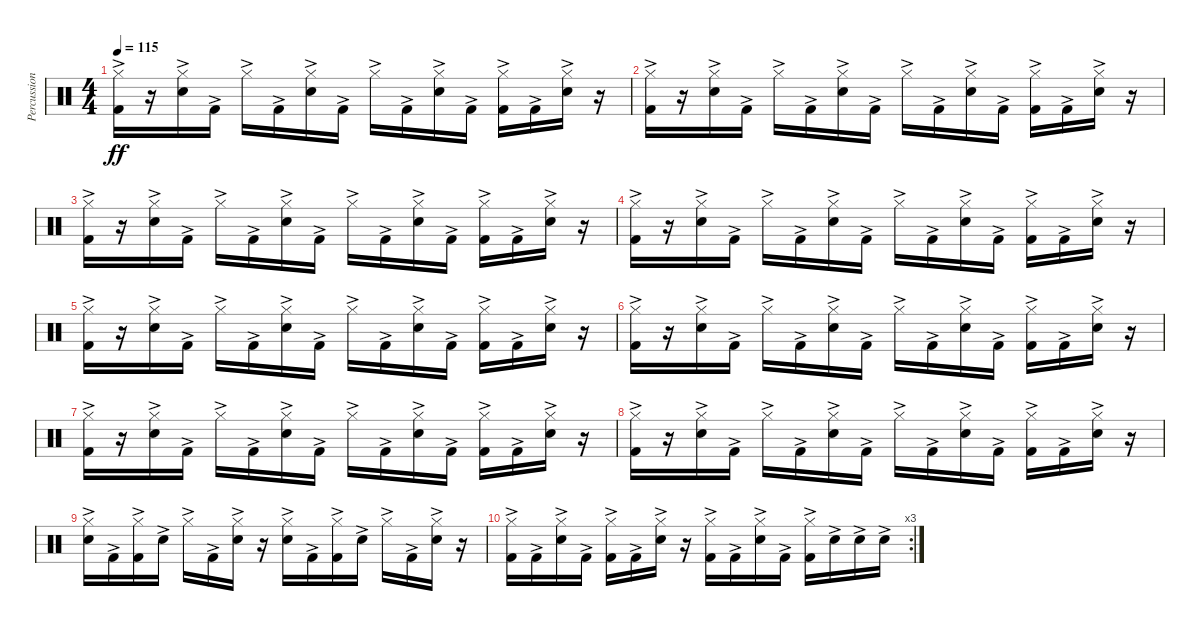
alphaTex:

\track ("Percussion" "Percussion") {instrument percussion bank 110}
\staff {score}
\articulation defaults
\ts (4 4)
\tempo 115
\clef neutral
\ks c
("Hi-Hat (closed)"{ac} "Kick (hit) 2"{ac}).16{dy ff} r.16 ("Hi-Hat (closed)"{ac} "Snare (hit) 2"{ac}).16 "Kick (hit) 2"{ac}.16 "Hi-Hat (closed)"{ac}.16 "Kick (hit) 2"{ac}.16 ("Hi-Hat (closed)"{ac} "Snare (hit) 2"{ac}).16 "Kick (hit) 2"{ac}.16 "Hi-Hat (closed)"{ac}.16 "Kick (hit) 2"{ac}.16 ("Hi-Hat (closed)"{ac} "Snare (hit) 2"{ac}).16 "Kick (hit) 2"{ac}.16 ("Hi-Hat (closed)"{ac} "Kick (hit) 2"{ac}).16 "Kick (hit) 2"{ac}.16 ("Hi-Hat (closed)"{ac} "Snare (hit) 2"{ac}).16 r.16 |
("Hi-Hat (closed)"{ac} "Kick (hit) 2"{ac}).16 r.16 ("Hi-Hat (closed)"{ac} "Snare (hit) 2"{ac}).16 "Kick (hit) 2"{ac}.16 "Hi-Hat (closed)"{ac}.16 "Kick (hit) 2"{ac}.16 ("Hi-Hat (closed)"{ac} "Snare (hit) 2"{ac}).16 "Kick (hit) 2"{ac}.16 "Hi-Hat (closed)"{ac}.16 "Kick (hit) 2"{ac}.16 ("Hi-Hat (closed)"{ac} "Snare (hit) 2"{ac}).16 "Kick (hit) 2"{ac}.16 ("Hi-Hat (closed)"{ac} "Kick (hit) 2"{ac}).16 "Kick (hit) 2"{ac}.16 ("Hi-Hat (closed)"{ac} "Snare (hit) 2"{ac}).16 r.16 |
("Hi-Hat (closed)"{ac} "Kick (hit) 2"{ac}).16 r.16 ("Hi-Hat (closed)"{ac} "Snare (hit) 2"{ac}).16 "Kick (hit) 2"{ac}.16 "Hi-Hat (closed)"{ac}.16 "Kick (hit) 2"{ac}.16 ("Hi-Hat (closed)"{ac} "Snare (hit) 2"{ac}).16 "Kick (hit) 2"{ac}.16 "Hi-Hat (closed)"{ac}.16 "Kick (hit) 2"{ac}.16 ("Hi-Hat (closed)"{ac} "Snare (hit) 2"{ac}).16 "Kick (hit) 2"{ac}.16 ("Hi-Hat (closed)"{ac} "Kick (hit) 2"{ac}).16 "Kick (hit) 2"{ac}.16 ("Hi-Hat (closed)"{ac} "Snare (hit) 2"{ac}).16 r.16 |
("Hi-Hat (closed)"{ac} "Kick (hit) 2"{ac}).16 r.16 ("Hi-Hat (closed)"{ac} "Snare (hit) 2"{ac}).16 "Kick (hit) 2"{ac}.16 "Hi-Hat (closed)"{ac}.16 "Kick (hit) 2"{ac}.16 ("Hi-Hat (closed)"{ac} "Snare (hit) 2"{ac}).16 "Kick (hit) 2"{ac}.16 "Hi-Hat (closed)"{ac}.16 "Kick (hit) 2"{ac}.16 ("Hi-Hat (closed)"{ac} "Snare (hit) 2"{ac}).16 "Kick (hit) 2"{ac}.16 ("Hi-Hat (closed)"{ac} "Kick (hit) 2"{ac}).16 "Kick (hit) 2"{ac}.16 ("Hi-Hat (closed)"{ac} "Snare (hit) 2"{ac}).16 r.16 |
("Hi-Hat (closed)"{ac} "Kick (hit) 2"{ac}).16 r.16 ("Hi-Hat (closed)"{ac} "Snare (hit) 2"{ac}).16 "Kick (hit) 2"{ac}.16 "Hi-Hat (closed)"{ac}.16 "Kick (hit) 2"{ac}.16 ("Hi-Hat (closed)"{ac} "Snare (hit) 2"{ac}).16 "Kick (hit) 2"{ac}.16 "Hi-Hat (closed)"{ac}.16 "Kick (hit) 2"{ac}.16 ("Hi-Hat (closed)"{ac} "Snare (hit) 2"{ac}).16 "Kick (hit) 2"{ac}.16 ("Hi-Hat (closed)"{ac} "Kick (hit) 2"{ac}).16 "Kick (hit) 2"{ac}.16 ("Hi-Hat (closed)"{ac} "Snare (hit) 2"{ac}).16 r.16 |
("Hi-Hat (closed)"{ac} "Kick (hit) 2"{ac}).16 r.16 ("Hi-Hat (closed)"{ac} "Snare (hit) 2"{ac}).16 "Kick (hit) 2"{ac}.16 "Hi-Hat (closed)"{ac}.16 "Kick (hit) 2"{ac}.16 ("Hi-Hat (closed)"{ac} "Snare (hit) 2"{ac}).16 "Kick (hit) 2"{ac}.16 "Hi-Hat (closed)"{ac}.16 "Kick (hit) 2"{ac}.16 ("Hi-Hat (closed)"{ac} "Snare (hit) 2"{ac}).16 "Kick (hit) 2"{ac}.16 ("Hi-Hat (closed)"{ac} "Kick (hit) 2"{ac}).16 "Kick (hit) 2"{ac}.16 ("Hi-Hat (closed)"{ac} "Snare (hit) 2"{ac}).16 r.16 |
("Hi-Hat (closed)"{ac} "Kick (hit) 2"{ac}).16 r.16 ("Hi-Hat (closed)"{ac} "Snare (hit) 2"{ac}).16 "Kick (hit) 2"{ac}.16 "Hi-Hat (closed)"{ac}.16 "Kick (hit) 2"{ac}.16 ("Hi-Hat (closed)"{ac} "Snare (hit) 2"{ac}).16 "Kick (hit) 2"{ac}.16 "Hi-Hat (closed)"{ac}.16 "Kick (hit) 2"{ac}.16 ("Hi-Hat (closed)"{ac} "Snare (hit) 2"{ac}).16 "Kick (hit) 2"{ac}.16 ("Hi-Hat (closed)"{ac} "Kick (hit) 2"{ac}).16 "Kick (hit) 2"{ac}.16 ("Hi-Hat (closed)"{ac} "Snare (hit) 2"{ac}).16 r.16 |
("Hi-Hat (closed)"{ac} "Kick (hit) 2"{ac}).16 r.16 ("Hi-Hat (closed)"{ac} "Snare (hit) 2"{ac}).16 "Kick (hit) 2"{ac}.16 "Hi-Hat (closed)"{ac}.16 "Kick (hit) 2"{ac}.16 ("Hi-Hat (closed)"{ac} "Snare (hit) 2"{ac}).16 "Kick (hit) 2"{ac}.16 "Hi-Hat (closed)"{ac}.16 "Kick (hit) 2"{ac}.16 ("Hi-Hat (closed)"{ac} "Snare (hit) 2"{ac}).16 "Kick (hit) 2"{ac}.16 ("Hi-Hat (closed)"{ac} "Kick (hit) 2"{ac}).16 "Kick (hit) 2"{ac}.16 ("Hi-Hat (closed)"{ac} "Snare (hit) 2"{ac}).16 r.16 |
("Hi-Hat (closed)"{ac} "Snare (hit) 2"{ac}).16 "Kick (hit) 2"{ac}.16 ("Hi-Hat (closed)"{ac} "Kick (hit) 2"{ac}).16 "Snare (hit) 2"{ac}.16 "Hi-Hat (closed)"{ac}.16 "Kick (hit) 2"{ac}.16 ("Hi-Hat (closed)"{ac} "Snare (hit) 2"{ac}).16 r.16 ("Hi-Hat (closed)"{ac} "Snare (hit) 2"{ac}).16 "Kick (hit) 2"{ac}.16 ("Hi-Hat (closed)"{ac} "Kick (hit) 2"{ac}).16 "Snare (hit) 2"{ac}.16 "Hi-Hat (closed)"{ac}.16 "Kick (hit) 2"{ac}.16 ("Hi-Hat (closed)"{ac} "Snare (hit) 2"{ac}).16 r.16 |
\rc 3
("Hi-Hat (closed)"{ac} "Kick (hit) 2"{ac}).16 "Kick (hit) 2"{ac}.16 ("Hi-Hat (closed)"{ac} "Snare (hit) 2"{ac}).16 "Kick (hit) 2"{ac}.16 ("Hi-Hat (closed)"{ac} "Kick (hit) 2"{ac}).16 "Kick (hit) 2"{ac}.16 ("Hi-Hat (closed)"{ac} "Snare (hit) 2"{ac}).16 r.16 ("Hi-Hat (closed)"{ac} "Kick (hit) 2"{ac}).16 "Kick (hit) 2"{ac}.16 ("Hi-Hat (closed)"{ac} "Snare (hit) 2"{ac}).16 "Kick (hit) 2"{ac}.16 ("Hi-Hat (closed)"{ac} "Kick (hit) 2"{ac}).16 "Snare (hit) 2"{ac}.16 "Snare (hit) 2"{ac}.16 "Snare (hit) 2"{ac}.16
